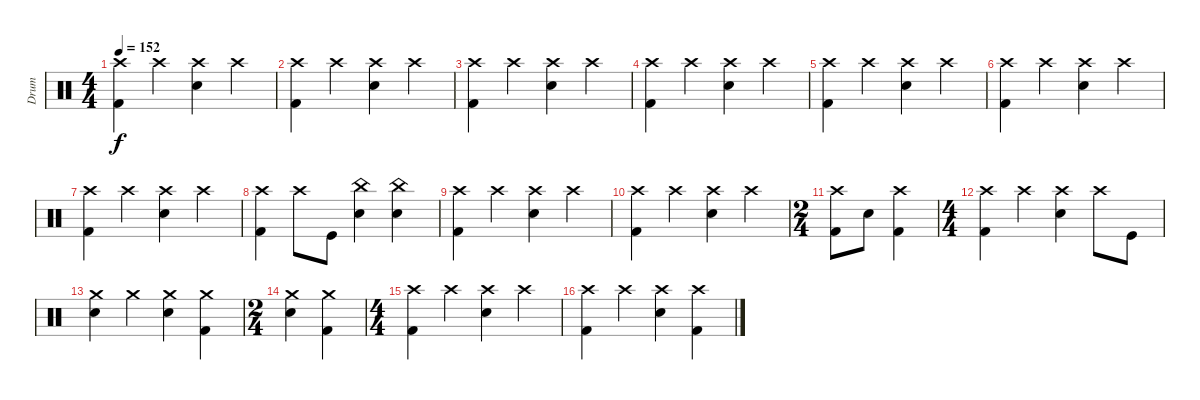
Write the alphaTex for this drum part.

\track ("Drum" "Drum") {instrument percussion}
\staff {score}
\articulation defaults
\ts (4 4)
\tempo 152
\clef neutral
\ks c
("Crash high (hit)" "Kick (hit) 2").4{dy f} "Crash high (hit)".4 ("Crash high (hit)" "Snare (hit) 2").4 "Crash high (hit)".4 |
("Crash high (hit)" "Kick (hit) 2").4 "Crash high (hit)".4 ("Crash high (hit)" "Snare (hit) 2").4 "Crash high (hit)".4 |
("Crash high (hit)" "Kick (hit) 2").4 "Crash high (hit)".4 ("Crash high (hit)" "Snare (hit) 2").4 "Crash high (hit)".4 |
("Crash high (hit)" "Kick (hit) 2").4 "Crash high (hit)".4 ("Crash high (hit)" "Snare (hit) 2").4 "Crash high (hit)".4 |
("Crash high (hit)" "Kick (hit) 2").4 "Crash high (hit)".4 ("Crash high (hit)" "Snare (hit) 2").4 "Crash high (hit)".4 |
("Crash high (hit)" "Kick (hit) 2").4 "Crash high (hit)".4 ("Crash high (hit)" "Snare (hit) 2").4 "Crash high (hit)".4 |
("Crash high (hit)" "Kick (hit) 2").4 "Crash high (hit)".4 ("Crash high (hit)" "Snare (hit) 2").4 "Crash high (hit)".4 |
("Crash high (hit)" "Kick (hit) 2").4 "Crash high (hit)".8 "Kick (hit)".8 ("China (hit)" "Snare (hit) 2").4 ("China (hit)" "Snare (hit) 2").4 |
("Crash high (hit)" "Kick (hit) 2").4 "Crash high (hit)".4 ("Crash high (hit)" "Snare (hit) 2").4 "Crash high (hit)".4 |
("Crash high (hit)" "Kick (hit) 2").4 "Crash high (hit)".4 ("Crash high (hit)" "Snare (hit) 2").4 "Crash high (hit)".4 |
\ts (2 4)
("Crash high (hit)" "Kick (hit) 2").8 "Snare (hit) 2".8 ("Crash high (hit)" "Kick (hit) 2").4 |
\ts (4 4)
("Crash high (hit)" "Kick (hit) 2").4 "Crash high (hit)".4 ("Crash high (hit)" "Snare (hit) 2").4 "Crash high (hit)".8 "Kick (hit)".8 |
("Crash medium (hit)" "Snare (hit) 2").4 "Crash medium (hit)".4 ("Crash medium (hit)" "Snare (hit) 2").4 ("Crash medium (hit)" "Kick (hit) 2").4 |
\ts (2 4)
("Crash medium (hit)" "Snare (hit) 2").4 ("Crash medium (hit)" "Kick (hit) 2").4 |
\ts (4 4)
("Crash high (hit)" "Kick (hit) 2").4 "Crash high (hit)".4 ("Crash high (hit)" "Snare (hit) 2").4 "Crash high (hit)".4 |
("Crash high (hit)" "Kick (hit) 2").4 "Crash high (hit)".4 ("Crash high (hit)" "Snare (hit) 2").4 ("Crash high (hit)" "Kick (hit) 2").4
